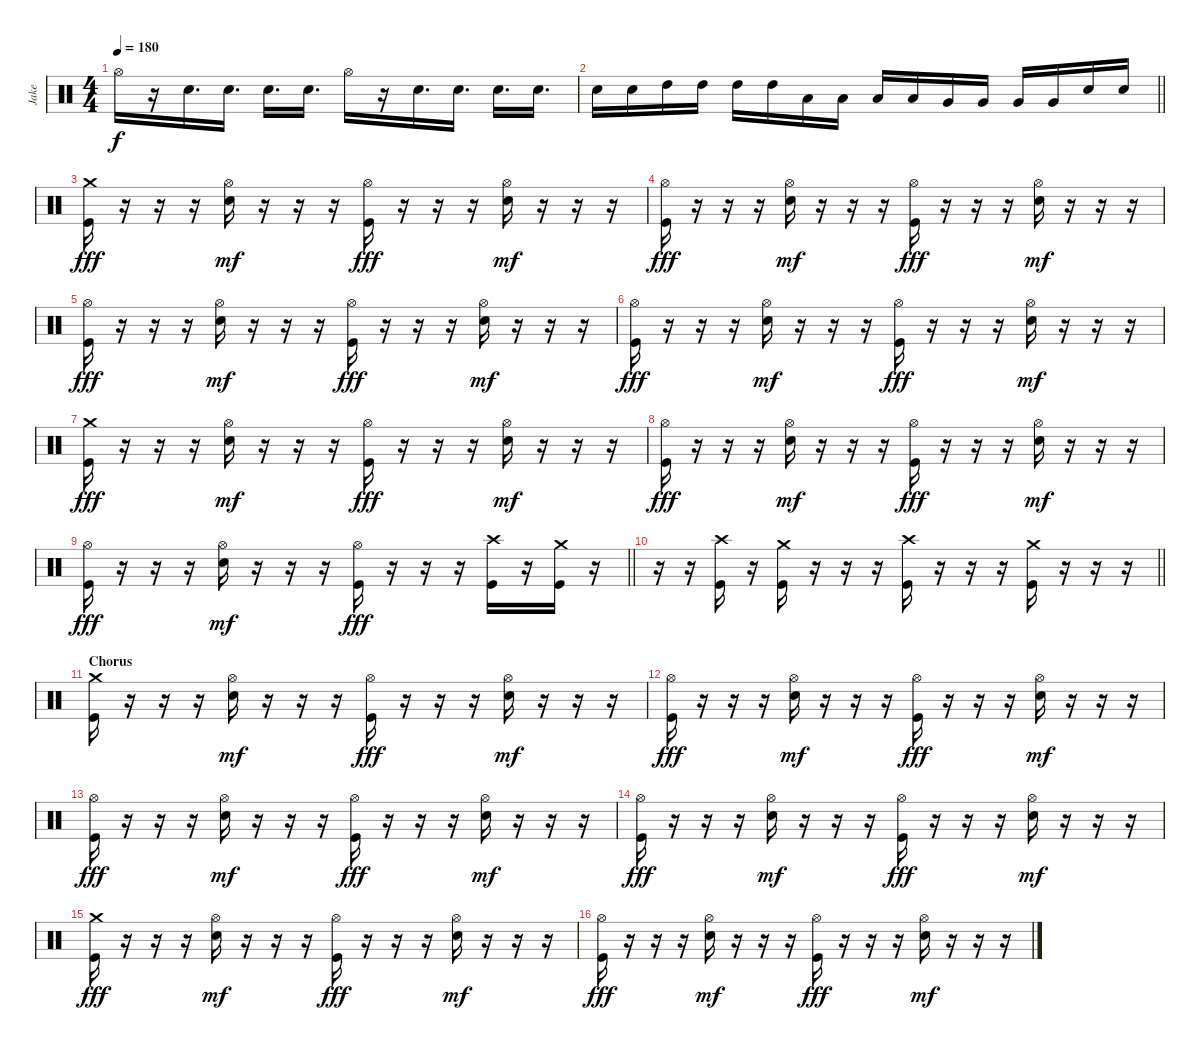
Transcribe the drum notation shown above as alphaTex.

\track ("Jake" "Jake") {instrument percussion}
\staff {score}
\articulation defaults
\ts (4 4)
\tempo 180
\clef neutral
\ks c "Hi-Hat (open)".16{dy f}
r.16 "Electric Snare (hit)".16{d} "Electric Snare (hit)".16{d} "Electric Snare (hit)".16{d} "Electric Snare (hit)".16{d} "Hi-Hat (open)".16 r.16 "Electric Snare (hit)".16{d} "Electric Snare (hit)".16{d} "Electric Snare (hit)".16{d} "Electric Snare (hit)".16{d} |
\barLineRight lightlight "Electric Snare (hit)".16 "Electric Snare (hit)".16 "High Tom (hit)".16 "High Tom (hit)".16 "High Tom (hit)".16 "High Tom (hit)".16 "Low Tom (hit)".16 "Low Tom (hit)".16 "Low Tom (hit)".16 "Low Tom (hit)".16 "Very Low Tom (hit)".16 "Very Low Tom (hit)".16 "Very Low Tom (hit)".16 "Very Low Tom (hit)".16 "Electric Snare (hit)".16 "Electric Snare (hit)".16
|
("Crash medium (hit)" "Kick (hit)").16{dy fff} r.16 r.16 r.16 ("Hi-Hat (open)" "Electric Snare (hit)").16{dy mf} r.16 r.16 r.16 ("Hi-Hat (open)" "Kick (hit)").16{dy fff} r.16 r.16 r.16 ("Hi-Hat (open)" "Electric Snare (hit)").16{dy mf} r.16 r.16 r.16 |
("Hi-Hat (open)" "Kick (hit)").16{dy fff} r.16 r.16 r.16 ("Hi-Hat (open)" "Electric Snare (hit)").16{dy mf} r.16 r.16 r.16 ("Hi-Hat (open)" "Kick (hit)").16{dy fff} r.16 r.16 r.16 ("Hi-Hat (open)" "Electric Snare (hit)").16{dy mf} r.16 r.16 r.16 |
("Hi-Hat (open)" "Kick (hit)").16{dy fff} r.16 r.16 r.16 ("Hi-Hat (open)" "Electric Snare (hit)").16{dy mf} r.16 r.16 r.16 ("Hi-Hat (open)" "Kick (hit)").16{dy fff} r.16 r.16 r.16 ("Hi-Hat (open)" "Electric Snare (hit)").16{dy mf} r.16 r.16 r.16 |
("Hi-Hat (open)" "Kick (hit)").16{dy fff} r.16 r.16 r.16 ("Hi-Hat (open)" "Electric Snare (hit)").16{dy mf} r.16 r.16 r.16 ("Hi-Hat (open)" "Kick (hit)").16{dy fff} r.16 r.16 r.16 ("Hi-Hat (open)" "Electric Snare (hit)").16{dy mf} r.16 r.16 r.16 |
("Crash medium (hit)" "Kick (hit)").16{dy fff} r.16 r.16 r.16 ("Hi-Hat (open)" "Electric Snare (hit)").16{dy mf} r.16 r.16 r.16 ("Hi-Hat (open)" "Kick (hit)").16{dy fff} r.16 r.16 r.16 ("Hi-Hat (open)" "Electric Snare (hit)").16{dy mf} r.16 r.16 r.16 |
("Hi-Hat (open)" "Kick (hit)").16{dy fff} r.16 r.16 r.16 ("Hi-Hat (open)" "Electric Snare (hit)").16{dy mf} r.16 r.16 r.16 ("Hi-Hat (open)" "Kick (hit)").16{dy fff} r.16 r.16 r.16 ("Hi-Hat (open)" "Electric Snare (hit)").16{dy mf} r.16 r.16 r.16 |
\barLineRight lightlight
("Hi-Hat (open)" "Kick (hit)").16{dy fff} r.16 r.16 r.16 ("Hi-Hat (open)" "Electric Snare (hit)").16{dy mf} r.16 r.16 r.16 ("Hi-Hat (open)" "Kick (hit)").16{dy fff} r.16 r.16 r.16 ("Crash high (hit)" "Kick (hit)").16 r.16 ("Crash medium (hit)" "Kick (hit)").16 r.16 |
\barLineRight lightlight
r.16 r.16 ("Crash high (hit)" "Kick (hit)").16 r.16 ("Crash medium (hit)" "Kick (hit)").16 r.16 r.16 r.16 ("Crash high (hit)" "Kick (hit)").16 r.16 r.16 r.16 ("Crash medium (hit)" "Kick (hit)").16 r.16 r.16 r.16 |
\section ("" "Chorus")
("Crash medium (hit)" "Kick (hit)").16 r.16 r.16 r.16 ("Hi-Hat (open)" "Electric Snare (hit)").16{dy mf} r.16 r.16 r.16 ("Hi-Hat (open)" "Kick (hit)").16{dy fff} r.16 r.16 r.16 ("Hi-Hat (open)" "Electric Snare (hit)").16{dy mf} r.16 r.16 r.16 |
("Hi-Hat (open)" "Kick (hit)").16{dy fff} r.16 r.16 r.16 ("Hi-Hat (open)" "Electric Snare (hit)").16{dy mf} r.16 r.16 r.16 ("Hi-Hat (open)" "Kick (hit)").16{dy fff} r.16 r.16 r.16 ("Hi-Hat (open)" "Electric Snare (hit)").16{dy mf} r.16 r.16 r.16 |
("Hi-Hat (open)" "Kick (hit)").16{dy fff} r.16 r.16 r.16 ("Hi-Hat (open)" "Electric Snare (hit)").16{dy mf} r.16 r.16 r.16 ("Hi-Hat (open)" "Kick (hit)").16{dy fff} r.16 r.16 r.16 ("Hi-Hat (open)" "Electric Snare (hit)").16{dy mf} r.16 r.16 r.16 |
("Hi-Hat (open)" "Kick (hit)").16{dy fff} r.16 r.16 r.16 ("Hi-Hat (open)" "Electric Snare (hit)").16{dy mf} r.16 r.16 r.16 ("Hi-Hat (open)" "Kick (hit)").16{dy fff} r.16 r.16 r.16 ("Hi-Hat (open)" "Electric Snare (hit)").16{dy mf} r.16 r.16 r.16 |
("Crash medium (hit)" "Kick (hit)").16{dy fff} r.16 r.16 r.16 ("Hi-Hat (open)" "Electric Snare (hit)").16{dy mf} r.16 r.16 r.16 ("Hi-Hat (open)" "Kick (hit)").16{dy fff} r.16 r.16 r.16 ("Hi-Hat (open)" "Electric Snare (hit)").16{dy mf} r.16 r.16 r.16 |
("Hi-Hat (open)" "Kick (hit)").16{dy fff} r.16 r.16 r.16 ("Hi-Hat (open)" "Electric Snare (hit)").16{dy mf} r.16 r.16 r.16 ("Hi-Hat (open)" "Kick (hit)").16{dy fff} r.16 r.16 r.16 ("Hi-Hat (open)" "Electric Snare (hit)").16{dy mf} r.16 r.16 r.16
